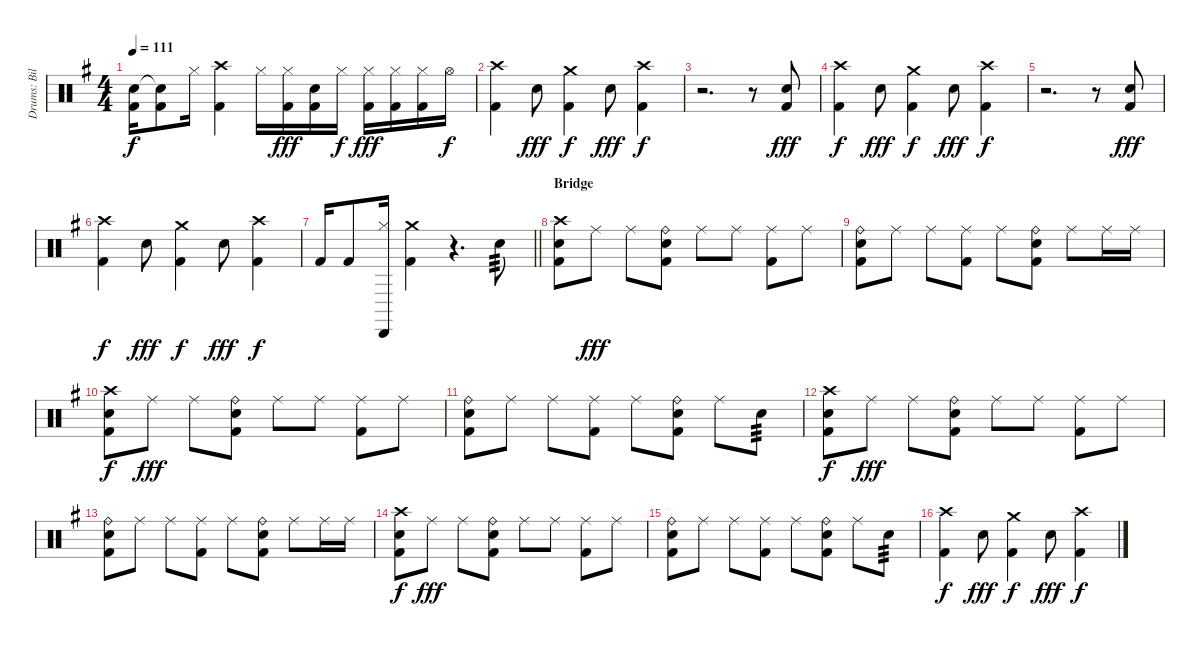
\track ("Drums: Bill" "Drums: Bil") {instrument percussion}
\staff {score}
\articulation defaults
\ts (4 4)
\tempo 111
\clef neutral
\ks g
("Snare (hit)"{t} "Kick (hit) 2").16{dy f} ("Snare (hit)"{t} "Kick (hit) 2").8 "Hi-Hat (closed)".16 ("Crash high (hit)" "Kick (hit) 2").4 "Hi-Hat (closed)".16 ("Hi-Hat (closed)" "Kick (hit) 2").16{dy fff} ("Electric Snare (hit)" "Kick (hit) 2").16 "Hi-Hat (closed)".16{dy f} ("Hi-Hat (closed)" "Kick (hit) 2").16{dy fff} ("Hi-Hat (closed)" "Kick (hit) 2").16 ("Hi-Hat (closed)" "Kick (hit) 2").16 "Hi-Hat (open)".16{dy f} |
("Crash high (hit)" "Kick (hit) 2").4 "Electric Snare (hit)".8{dy fff} ("Crash medium (hit)" "Kick (hit) 2").4{dy f} "Electric Snare (hit)".8{dy fff} ("Crash high (hit)" "Kick (hit) 2").4{dy f} |
r.2{d} r.8 ("Electric Snare (hit)" "Kick (hit) 2").8{dy fff} |
("Crash high (hit)" "Kick (hit) 2").4{dy f} "Electric Snare (hit)".8{dy fff} ("Crash medium (hit)" "Kick (hit) 2").4{dy f} "Electric Snare (hit)".8{dy fff} ("Crash high (hit)" "Kick (hit) 2").4{dy f} |
r.2{d} r.8 ("Electric Snare (hit)" "Kick (hit) 2").8{dy fff} |
("Crash high (hit)" "Kick (hit) 2").4{dy f} "Electric Snare (hit)".8{dy fff} ("Crash medium (hit)" "Kick (hit) 2").4{dy f} "Electric Snare (hit)".8{dy fff} ("Crash high (hit)" "Kick (hit) 2").4{dy f} |
\barLineRight lightlight "Kick (hit) 2".16 "Kick (hit) 2".8
("Cabasa (hit)" "Hi-Hat (closed)").16 ("Crash medium (hit)" "Kick (hit) 2").4 r.4{d} "Snare (hit) 2".8{tp 3} |
\section ("" "Bridge")
("Crash high (hit)" "Snare (hit) 2" "Kick (hit) 2").8 "Ride (middle)".8{dy fff} "Ride (middle)".8 ("Ride (bell)" "Snare (hit) 2" "Kick (hit) 2").8 "Ride (middle)".8 "Ride (middle)".8 ("Ride (middle)" "Kick (hit) 2").8 "Ride (middle)".8 |
("Ride (bell)" "Snare (hit) 2" "Kick (hit) 2").8 "Ride (middle)".8 "Ride (middle)".8 ("Ride (middle)" "Kick (hit) 2").8 "Ride (middle)".8 ("Ride (bell)" "Snare (hit) 2" "Kick (hit) 2").8 "Ride (middle)".8 "Ride (middle)".16 "Ride (middle)".16 |
("Crash high (hit)" "Snare (hit) 2" "Kick (hit) 2").8{dy f} "Ride (middle)".8{dy fff} "Ride (middle)".8 ("Ride (bell)" "Snare (hit) 2" "Kick (hit) 2").8 "Ride (middle)".8 "Ride (middle)".8 ("Ride (middle)" "Kick (hit) 2").8 "Ride (middle)".8 |
("Ride (bell)" "Snare (hit) 2" "Kick (hit) 2").8 "Ride (middle)".8 "Ride (middle)".8 ("Ride (middle)" "Kick (hit) 2").8 "Ride (middle)".8 ("Ride (bell)" "Snare (hit) 2" "Kick (hit) 2").8 "Ride (middle)".8 "Electric Snare (hit)".8{tp 3} |
("Crash high (hit)" "Snare (hit) 2" "Kick (hit) 2").8{dy f} "Ride (middle)".8{dy fff} "Ride (middle)".8 ("Ride (bell)" "Snare (hit) 2" "Kick (hit) 2").8 "Ride (middle)".8 "Ride (middle)".8 ("Ride (middle)" "Kick (hit) 2").8 "Ride (middle)".8 |
("Ride (bell)" "Snare (hit) 2" "Kick (hit) 2").8 "Ride (middle)".8 "Ride (middle)".8 ("Ride (middle)" "Kick (hit) 2").8 "Ride (middle)".8 ("Ride (bell)" "Snare (hit) 2" "Kick (hit) 2").8 "Ride (middle)".8 "Ride (middle)".16 "Ride (middle)".16 |
("Crash high (hit)" "Snare (hit) 2" "Kick (hit) 2").8{dy f} "Ride (middle)".8{dy fff} "Ride (middle)".8 ("Ride (bell)" "Snare (hit) 2" "Kick (hit) 2").8 "Ride (middle)".8 "Ride (middle)".8 ("Ride (middle)" "Kick (hit) 2").8 "Ride (middle)".8 |
("Ride (bell)" "Snare (hit) 2" "Kick (hit) 2").8 "Ride (middle)".8 "Ride (middle)".8 ("Ride (middle)" "Kick (hit) 2").8 "Ride (middle)".8 ("Ride (bell)" "Snare (hit) 2" "Kick (hit) 2").8 "Ride (middle)".8 "Electric Snare (hit)".8{tp 3} |
("Crash high (hit)" "Kick (hit) 2").4{dy f} "Electric Snare (hit)".8{dy fff} ("Crash medium (hit)" "Kick (hit) 2").4{dy f} "Electric Snare (hit)".8{dy fff} ("Crash high (hit)" "Kick (hit) 2").4{dy f}
